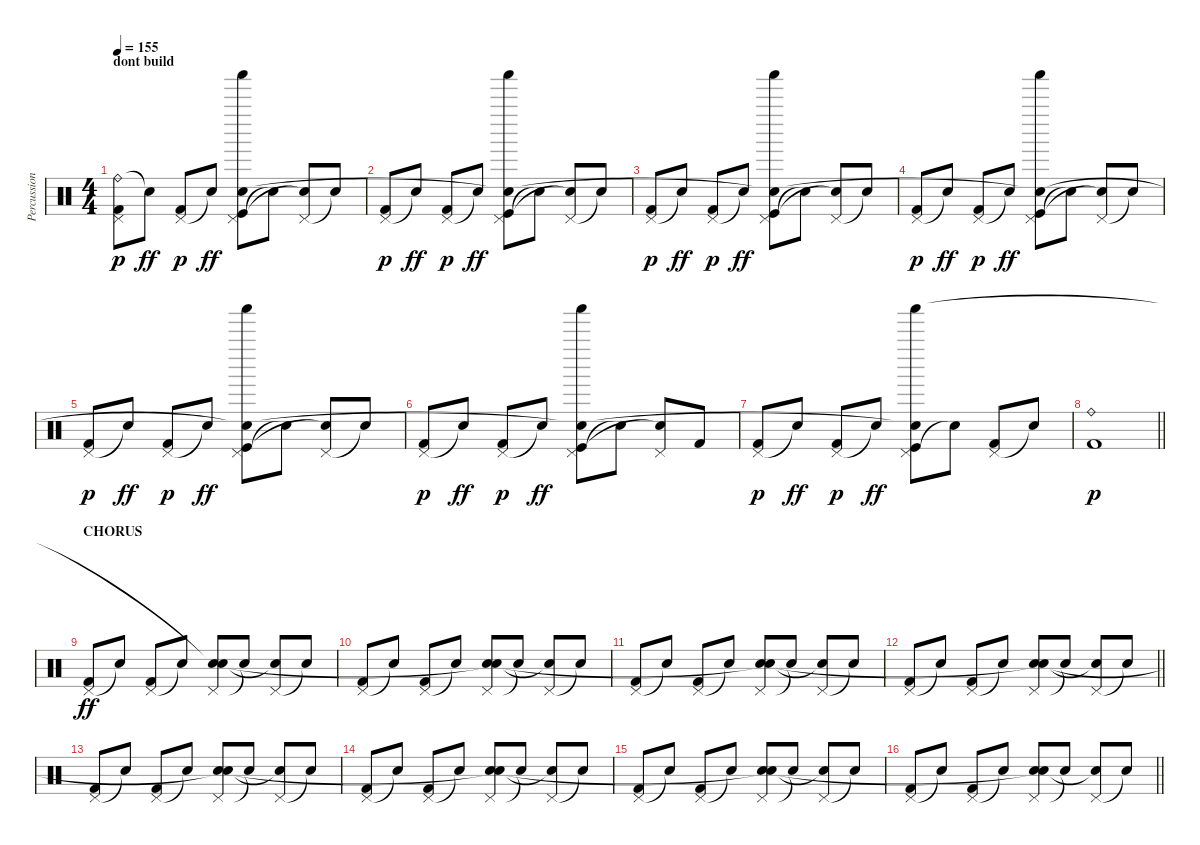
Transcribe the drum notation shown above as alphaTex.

\track ("Percussion" "Percussion") {instrument percussion}
\staff {score}
\articulation defaults
\ts (4 4)
\section ("" "dont build")
\tempo 155
\clef neutral
\ks c
("Ride (bell)" "Pedal Hi-Hat (hit)" "Kick (hit) 2").8{dy p} "Snare (hit)"{t}.8{dy ff} ("Pedal Hi-Hat (hit)" "Kick (hit) 2").8{dy p} "Snare (hit)"{t}.8{dy ff} ("Pedal Hi-Hat (hit)" "Kick (hit)" "Shaker (hit)" "Snare (hit)"{t}).8 "Snare (hit)"{t}.8 ("Pedal Hi-Hat (hit)" "Snare (hit)"{t}).8 "Snare (hit)"{t}.8 |
("Pedal Hi-Hat (hit)" "Kick (hit) 2").8{dy p} "Snare (hit)"{t}.8{dy ff} ("Pedal Hi-Hat (hit)" "Kick (hit) 2").8{dy p} "Snare (hit)"{t}.8{dy ff} ("Pedal Hi-Hat (hit)" "Kick (hit)" "Shaker (hit)" "Snare (hit)"{t}).8 "Snare (hit)"{t}.8 ("Pedal Hi-Hat (hit)" "Snare (hit)"{t}).8 "Snare (hit)"{t}.8 |
("Pedal Hi-Hat (hit)" "Kick (hit) 2").8{dy p} "Snare (hit)"{t}.8{dy ff} ("Pedal Hi-Hat (hit)" "Kick (hit) 2").8{dy p} "Snare (hit)"{t}.8{dy ff} ("Pedal Hi-Hat (hit)" "Kick (hit)" "Shaker (hit)" "Snare (hit)"{t}).8 "Snare (hit)"{t}.8 ("Pedal Hi-Hat (hit)" "Snare (hit)"{t}).8 "Snare (hit)"{t}.8 |
("Pedal Hi-Hat (hit)" "Kick (hit) 2").8{dy p} "Snare (hit)"{t}.8{dy ff} ("Pedal Hi-Hat (hit)" "Kick (hit) 2").8{dy p} "Snare (hit)"{t}.8{dy ff} ("Pedal Hi-Hat (hit)" "Kick (hit)" "Shaker (hit)" "Snare (hit)"{t}).8 "Snare (hit)"{t}.8 ("Pedal Hi-Hat (hit)" "Snare (hit)"{t}).8 "Snare (hit)"{t}.8 |
("Pedal Hi-Hat (hit)" "Kick (hit) 2").8{dy p} "Snare (hit)"{t}.8{dy ff} ("Pedal Hi-Hat (hit)" "Kick (hit) 2").8{dy p} "Snare (hit)"{t}.8{dy ff} ("Pedal Hi-Hat (hit)" "Kick (hit)" "Shaker (hit)" "Snare (hit)"{t}).8 "Snare (hit)"{t}.8 ("Pedal Hi-Hat (hit)" "Snare (hit)"{t}).8 "Snare (hit)"{t}.8 |
("Pedal Hi-Hat (hit)" "Kick (hit) 2").8{dy p} "Snare (hit)"{t}.8{dy ff} ("Pedal Hi-Hat (hit)" "Kick (hit) 2").8{dy p} "Snare (hit)"{t}.8{dy ff} ("Pedal Hi-Hat (hit)" "Kick (hit)" "Shaker (hit)" "Snare (hit)"{t}).8 "Snare (hit)"{t}.8 ("Pedal Hi-Hat (hit)" "Snare (hit)"{t}).8 "Kick (hit) 2".8 |
("Pedal Hi-Hat (hit)" "Kick (hit) 2").8{dy p} "Snare (hit)"{t}.8{dy ff} ("Pedal Hi-Hat (hit)" "Kick (hit) 2").8{dy p} "Snare (hit)"{t}.8{dy ff} ("Pedal Hi-Hat (hit)" "Kick (hit)" "Shaker (hit)" "Snare (hit)"{t}).8 "Snare (hit)"{t}.8 ("Pedal Hi-Hat (hit)" "Kick (hit) 2").8 "Snare (hit)"{t}.8 |
\barLineRight lightlight
("Ride (bell)" "Kick (hit) 2").1{dy p} |
\section ("" "CHORUS")
("Pedal Hi-Hat (hit)" "Kick (hit) 2").8{dy ff} "Snare (hit)"{t}.8 ("Pedal Hi-Hat (hit)" "Kick (hit) 2").8 "Snare (hit)"{t}.8 ("Pedal Hi-Hat (hit)" "Snare (hit) 2" "Snare (hit)"{t}).8 "Snare (hit)"{t}.8 ("Pedal Hi-Hat (hit)" "Snare (hit)"{t}).8 "Snare (hit)"{t}.8 |
("Pedal Hi-Hat (hit)" "Kick (hit) 2").8 "Snare (hit)"{t}.8 ("Pedal Hi-Hat (hit)" "Kick (hit) 2").8 "Snare (hit)"{t}.8 ("Pedal Hi-Hat (hit)" "Snare (hit) 2" "Snare (hit)"{t}).8 "Snare (hit)"{t}.8 ("Pedal Hi-Hat (hit)" "Snare (hit)"{t}).8 "Snare (hit)"{t}.8 |
("Pedal Hi-Hat (hit)" "Kick (hit) 2").8 "Snare (hit)"{t}.8 ("Pedal Hi-Hat (hit)" "Kick (hit) 2").8 "Snare (hit)"{t}.8 ("Pedal Hi-Hat (hit)" "Snare (hit) 2" "Snare (hit)"{t}).8 "Snare (hit)"{t}.8 ("Pedal Hi-Hat (hit)" "Snare (hit)"{t}).8 "Snare (hit)"{t}.8 |
\barLineRight lightlight
("Pedal Hi-Hat (hit)" "Kick (hit) 2").8 "Snare (hit)"{t}.8 ("Pedal Hi-Hat (hit)" "Kick (hit) 2").8 "Snare (hit)"{t}.8 ("Pedal Hi-Hat (hit)" "Snare (hit) 2" "Snare (hit)"{t}).8 "Snare (hit)"{t}.8 ("Pedal Hi-Hat (hit)" "Snare (hit)"{t}).8 "Snare (hit)"{t}.8 |
("Pedal Hi-Hat (hit)" "Kick (hit) 2").8 "Snare (hit)"{t}.8 ("Pedal Hi-Hat (hit)" "Kick (hit) 2").8 "Snare (hit)"{t}.8 ("Pedal Hi-Hat (hit)" "Snare (hit) 2" "Snare (hit)"{t}).8 "Snare (hit)"{t}.8 ("Pedal Hi-Hat (hit)" "Snare (hit)"{t}).8 "Snare (hit)"{t}.8 |
("Pedal Hi-Hat (hit)" "Kick (hit) 2").8 "Snare (hit)"{t}.8 ("Pedal Hi-Hat (hit)" "Kick (hit) 2").8 "Snare (hit)"{t}.8 ("Pedal Hi-Hat (hit)" "Snare (hit) 2" "Snare (hit)"{t}).8 "Snare (hit)"{t}.8 ("Pedal Hi-Hat (hit)" "Snare (hit)"{t}).8 "Snare (hit)"{t}.8 |
("Pedal Hi-Hat (hit)" "Kick (hit) 2").8 "Snare (hit)"{t}.8 ("Pedal Hi-Hat (hit)" "Kick (hit) 2").8 "Snare (hit)"{t}.8 ("Pedal Hi-Hat (hit)" "Snare (hit) 2" "Snare (hit)"{t}).8 "Snare (hit)"{t}.8 ("Pedal Hi-Hat (hit)" "Snare (hit)"{t}).8 "Snare (hit)"{t}.8 |
\barLineRight lightlight
("Pedal Hi-Hat (hit)" "Kick (hit) 2").8 "Snare (hit)"{t}.8 ("Pedal Hi-Hat (hit)" "Kick (hit) 2").8 "Snare (hit)"{t}.8 ("Pedal Hi-Hat (hit)" "Snare (hit) 2" "Snare (hit)"{t}).8 "Snare (hit)"{t}.8 ("Pedal Hi-Hat (hit)" "Snare (hit)"{t}).8 "Snare (hit)"{t}.8
